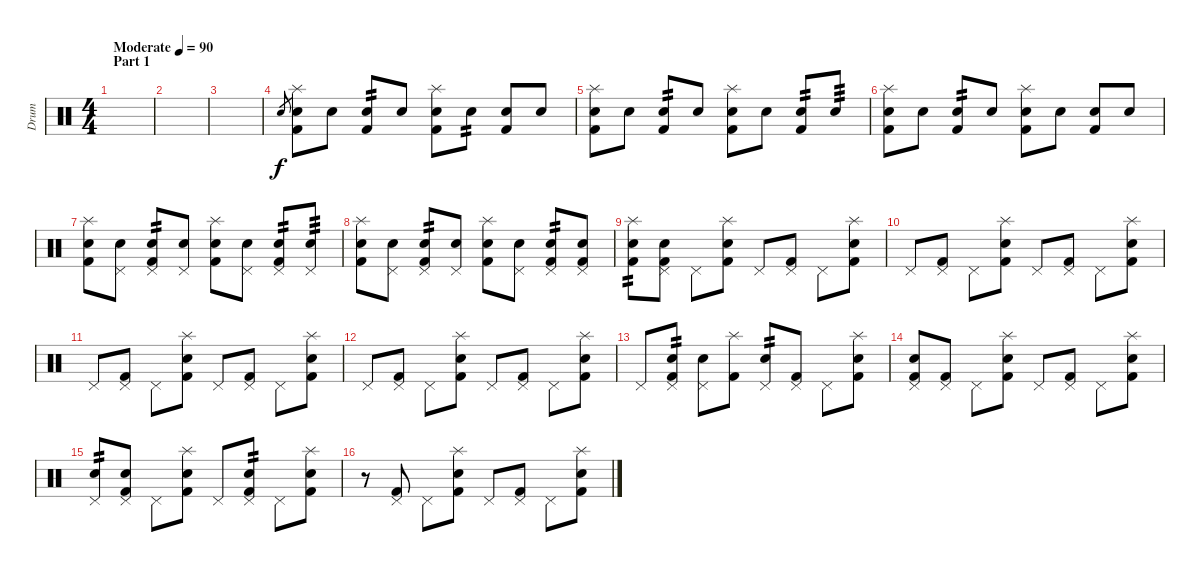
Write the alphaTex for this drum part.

\track ("Drum" "Drum") {instrument percussion}
\staff {score}
\articulation defaults
\ts (4 4)
\section ("" "Part 1")
\tempo (90 "Moderate")
\clef neutral
\ks c
|
|
|
"Electric Snare (hit)".8{gr} ("Electric Snare (hit)" "Kick (hit) 2" "Splash (hit)").8 "Electric Snare (hit)".8 ("Electric Snare (hit)" "Kick (hit) 2").8{tp 2} "Electric Snare (hit)".8 ("Electric Snare (hit)" "Kick (hit) 2" "Splash (hit)").8 "Electric Snare (hit)".8{tp 2} ("Electric Snare (hit)" "Kick (hit) 2").8 "Electric Snare (hit)".8 |
("Electric Snare (hit)" "Kick (hit) 2" "Splash (hit)").8 "Electric Snare (hit)".8 ("Electric Snare (hit)" "Kick (hit) 2").8{tp 2} "Electric Snare (hit)".8 ("Electric Snare (hit)" "Kick (hit) 2" "Splash (hit)").8 "Electric Snare (hit)".8 ("Electric Snare (hit)" "Kick (hit) 2").8{tp 2} "Electric Snare (hit)".8{tp 3} |
("Electric Snare (hit)" "Kick (hit) 2" "Splash (hit)").8 "Electric Snare (hit)".8 ("Electric Snare (hit)" "Kick (hit) 2").8{tp 2} "Electric Snare (hit)".8 ("Electric Snare (hit)" "Kick (hit) 2" "Splash (hit)").8 "Electric Snare (hit)".8 ("Electric Snare (hit)" "Kick (hit) 2").8 "Electric Snare (hit)".8 |
("Electric Snare (hit)" "Kick (hit) 2" "Splash (hit)").8 ("Electric Snare (hit)" "Pedal Hi-Hat (hit)").8 ("Electric Snare (hit)" "Kick (hit) 2" "Pedal Hi-Hat (hit)").8{tp 2} ("Electric Snare (hit)" "Pedal Hi-Hat (hit)").8 ("Electric Snare (hit)" "Kick (hit) 2" "Splash (hit)").8 ("Electric Snare (hit)" "Pedal Hi-Hat (hit)").8 ("Electric Snare (hit)" "Kick (hit) 2" "Pedal Hi-Hat (hit)").8{tp 2} ("Electric Snare (hit)" "Pedal Hi-Hat (hit)").8{tp 3} |
("Electric Snare (hit)" "Kick (hit) 2" "Splash (hit)").8 ("Electric Snare (hit)" "Pedal Hi-Hat (hit)").8 ("Electric Snare (hit)" "Kick (hit) 2" "Pedal Hi-Hat (hit)").8{tp 2} ("Electric Snare (hit)" "Pedal Hi-Hat (hit)").8 ("Electric Snare (hit)" "Kick (hit) 2" "Splash (hit)").8 ("Electric Snare (hit)" "Pedal Hi-Hat (hit)").8 ("Electric Snare (hit)" "Kick (hit) 2" "Pedal Hi-Hat (hit)").8{tp 2} ("Electric Snare (hit)" "Kick (hit) 2" "Pedal Hi-Hat (hit)").8 |
("Electric Snare (hit)" "Kick (hit) 2" "Splash (hit)").8{tp 2} ("Electric Snare (hit)" "Kick (hit) 2" "Pedal Hi-Hat (hit)").8 "Pedal Hi-Hat (hit)".8 ("Electric Snare (hit)" "Kick (hit) 2" "Splash (hit)").8 "Pedal Hi-Hat (hit)".8 ("Kick (hit) 2" "Pedal Hi-Hat (hit)").8 "Pedal Hi-Hat (hit)".8 ("Electric Snare (hit)" "Kick (hit) 2" "Splash (hit)").8 |
"Pedal Hi-Hat (hit)".8 ("Kick (hit) 2" "Pedal Hi-Hat (hit)").8 "Pedal Hi-Hat (hit)".8 ("Electric Snare (hit)" "Kick (hit) 2" "Splash (hit)").8 "Pedal Hi-Hat (hit)".8 ("Kick (hit) 2" "Pedal Hi-Hat (hit)").8 "Pedal Hi-Hat (hit)".8 ("Electric Snare (hit)" "Kick (hit) 2" "Splash (hit)").8 |
"Pedal Hi-Hat (hit)".8 ("Kick (hit) 2" "Pedal Hi-Hat (hit)").8 "Pedal Hi-Hat (hit)".8 ("Electric Snare (hit)" "Kick (hit) 2" "Splash (hit)").8 "Pedal Hi-Hat (hit)".8 ("Kick (hit) 2" "Pedal Hi-Hat (hit)").8 "Pedal Hi-Hat (hit)".8 ("Electric Snare (hit)" "Kick (hit) 2" "Splash (hit)").8 |
"Pedal Hi-Hat (hit)".8 ("Kick (hit) 2" "Pedal Hi-Hat (hit)").8 "Pedal Hi-Hat (hit)".8 ("Electric Snare (hit)" "Kick (hit) 2" "Splash (hit)").8 "Pedal Hi-Hat (hit)".8 ("Kick (hit) 2" "Pedal Hi-Hat (hit)").8 "Pedal Hi-Hat (hit)".8 ("Electric Snare (hit)" "Kick (hit) 2" "Splash (hit)").8 |
"Pedal Hi-Hat (hit)".8 ("Electric Snare (hit)" "Kick (hit) 2" "Pedal Hi-Hat (hit)").8{tp 2} ("Electric Snare (hit)" "Pedal Hi-Hat (hit)").8 ("Kick (hit) 2" "Splash (hit)").8 ("Electric Snare (hit)" "Pedal Hi-Hat (hit)").8{tp 2} ("Kick (hit) 2" "Pedal Hi-Hat (hit)").8 "Pedal Hi-Hat (hit)".8 ("Electric Snare (hit)" "Kick (hit) 2" "Splash (hit)").8 |
("Electric Snare (hit)" "Kick (hit) 2" "Pedal Hi-Hat (hit)").8 ("Kick (hit) 2" "Pedal Hi-Hat (hit)").8 "Pedal Hi-Hat (hit)".8 ("Electric Snare (hit)" "Kick (hit) 2" "Splash (hit)").8 "Pedal Hi-Hat (hit)".8 ("Kick (hit) 2" "Pedal Hi-Hat (hit)").8 "Pedal Hi-Hat (hit)".8 ("Electric Snare (hit)" "Kick (hit) 2" "Splash (hit)").8 |
("Electric Snare (hit)" "Pedal Hi-Hat (hit)").8{tp 2} ("Electric Snare (hit)" "Kick (hit) 2" "Pedal Hi-Hat (hit)").8 "Pedal Hi-Hat (hit)".8 ("Electric Snare (hit)" "Kick (hit) 2" "Splash (hit)").8 "Pedal Hi-Hat (hit)".8 ("Electric Snare (hit)" "Kick (hit) 2" "Pedal Hi-Hat (hit)").8{tp 2} "Pedal Hi-Hat (hit)".8 ("Electric Snare (hit)" "Kick (hit) 2" "Splash (hit)").8 |
r.8 ("Kick (hit) 2" "Pedal Hi-Hat (hit)").8 "Pedal Hi-Hat (hit)".8 ("Electric Snare (hit)" "Kick (hit) 2" "Splash (hit)").8 "Pedal Hi-Hat (hit)".8 ("Kick (hit) 2" "Pedal Hi-Hat (hit)").8 "Pedal Hi-Hat (hit)".8 ("Electric Snare (hit)" "Kick (hit) 2" "Splash (hit)").8
